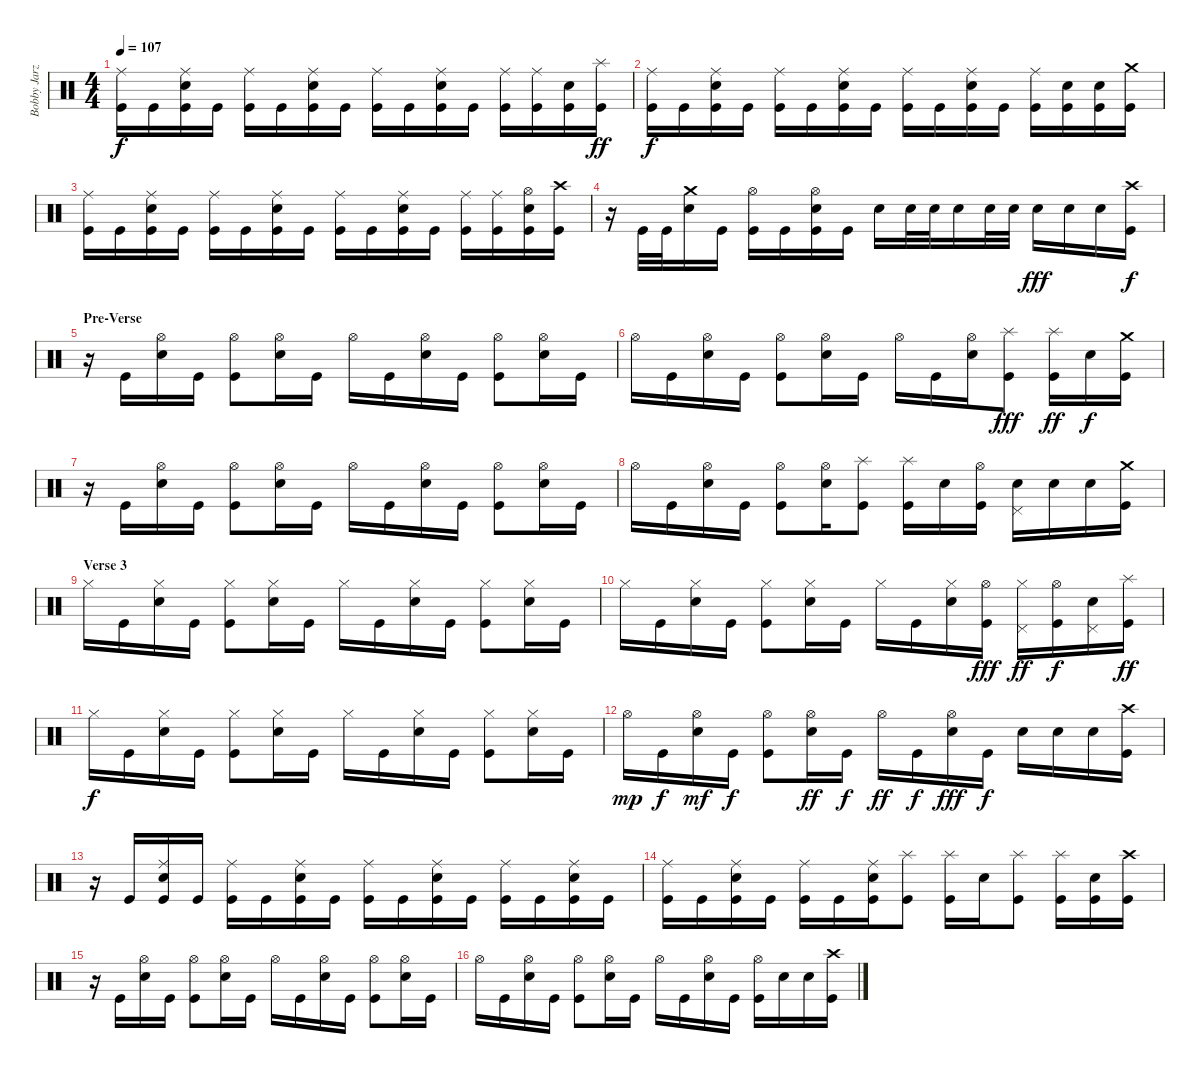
\track ("Bobby Jarzombek" "Bobby Jarz") {instrument percussion}
\staff {score}
\articulation defaults
\ts (4 4)
\tempo 107
\clef neutral
\ks c
("Kick (hit)" "Ride (middle)").16{dy f} "Kick (hit)".16 ("Kick (hit)" "Ride (middle)" "Electric Snare (hit)").16 "Kick (hit)".16 ("Kick (hit)" "Ride (middle)").16 "Kick (hit)".16 ("Kick (hit)" "Ride (middle)" "Electric Snare (hit)").16 "Kick (hit)".16 ("Kick (hit)" "Ride (middle)").16 "Kick (hit)".16 ("Kick (hit)" "Ride (middle)" "Electric Snare (hit)").16 "Kick (hit)".16 ("Kick (hit)" "Ride (middle)").16 ("Kick (hit)" "Ride (middle)").16 ("Kick (hit)" "Electric Snare (hit)").16 ("Kick (hit)" "Splash (hit)").16{dy ff} |
("Kick (hit)" "Ride (middle)").16{dy f} "Kick (hit)".16 ("Kick (hit)" "Ride (middle)" "Electric Snare (hit)").16 "Kick (hit)".16 ("Kick (hit)" "Ride (middle)").16 "Kick (hit)".16 ("Kick (hit)" "Ride (middle)" "Electric Snare (hit)").16 "Kick (hit)".16 ("Kick (hit)" "Ride (middle)").16 "Kick (hit)".16 ("Kick (hit)" "Ride (middle)" "Electric Snare (hit)").16 "Kick (hit)".16 ("Kick (hit)" "Ride (middle)").16 ("Kick (hit)" "Electric Snare (hit)").16 ("Kick (hit)" "Electric Snare (hit)").16 ("Kick (hit)" "Crash medium (hit)").16 |
("Kick (hit)" "Ride (middle)").16 "Kick (hit)".16 ("Kick (hit)" "Ride (middle)" "Electric Snare (hit)").16 "Kick (hit)".16 ("Kick (hit)" "Ride (middle)").16 "Kick (hit)".16 ("Kick (hit)" "Ride (middle)" "Electric Snare (hit)").16 "Kick (hit)".16 ("Kick (hit)" "Ride (middle)").16 "Kick (hit)".16 ("Kick (hit)" "Ride (middle)" "Electric Snare (hit)").16 "Kick (hit)".16 ("Kick (hit)" "Ride (middle)").16 ("Kick (hit)" "Ride (middle)").16 ("Kick (hit)" "Hi-Hat (open)" "Electric Snare (hit)").16 ("Kick (hit)" "Crash high (hit)").16 |
r.16 "Kick (hit)".32 "Kick (hit)".32 ("Crash medium (hit)" "Electric Snare (hit)").16 "Kick (hit)".16 ("Kick (hit)" "Hi-Hat (open)").16 "Kick (hit)".16 ("Kick (hit)" "Electric Snare (hit)" "Hi-Hat (open)").16 "Kick (hit)".16 "Electric Snare (hit)".16 "Electric Snare (hit)".32 "Electric Snare (hit)".32 "Electric Snare (hit)".16 "Electric Snare (hit)".32 "Electric Snare (hit)".32 "Electric Snare (hit)".16{dy fff} "Electric Snare (hit)".16 "Electric Snare (hit)".16 ("Crash high (hit)" "Kick (hit)").16{dy f} |
\section ("" "Pre-Verse")
r.16 "Kick (hit)".16 ("Hi-Hat (open)" "Electric Snare (hit)").16 "Kick (hit)".16 ("Hi-Hat (open)" "Kick (hit)").8 ("Hi-Hat (open)" "Electric Snare (hit)").16 "Kick (hit)".16 "Hi-Hat (open)".16 "Kick (hit)".16 ("Hi-Hat (open)" "Electric Snare (hit)").16 "Kick (hit)".16 ("Hi-Hat (open)" "Kick (hit)").8 ("Hi-Hat (open)" "Electric Snare (hit)").16 "Kick (hit)".16 |
"Hi-Hat (open)".16 "Kick (hit)".16 ("Hi-Hat (open)" "Electric Snare (hit)").16 "Kick (hit)".16 ("Hi-Hat (open)" "Kick (hit)").8 ("Hi-Hat (open)" "Electric Snare (hit)").16 "Kick (hit)".16 "Hi-Hat (open)".16 "Kick (hit)".16 ("Hi-Hat (open)" "Electric Snare (hit)").16 ("Splash (hit)" "Kick (hit)").8{dy fff} ("Splash (hit)" "Kick (hit)").16{dy ff} "Electric Snare (hit)".16{dy f} ("Crash medium (hit)" "Kick (hit)").16 |
r.16 "Kick (hit)".16 ("Hi-Hat (open)" "Electric Snare (hit)").16 "Kick (hit)".16 ("Hi-Hat (open)" "Kick (hit)").8 ("Hi-Hat (open)" "Electric Snare (hit)").16 "Kick (hit)".16 "Hi-Hat (open)".16 "Kick (hit)".16 ("Hi-Hat (open)" "Electric Snare (hit)").16 "Kick (hit)".16 ("Hi-Hat (open)" "Kick (hit)").8 ("Hi-Hat (open)" "Electric Snare (hit)").16 "Kick (hit)".16 |
"Hi-Hat (open)".16 "Kick (hit)".16 ("Hi-Hat (open)" "Electric Snare (hit)").16 "Kick (hit)".16 ("Hi-Hat (open)" "Kick (hit)").8 ("Hi-Hat (open)" "Electric Snare (hit)").16 ("Splash (hit)" "Kick (hit)").8 ("Splash (hit)" "Kick (hit)").16 "Electric Snare (hit)".16 ("Hi-Hat (open)" "Kick (hit)").16 ("Electric Snare (hit)" "Pedal Hi-Hat (hit)").16 "Electric Snare (hit)".16 "Electric Snare (hit)".16 ("Crash medium (hit)" "Kick (hit)").16 |
\section ("" "Verse 3")
"Hi-Hat (closed)".16 "Kick (hit)".16 ("Hi-Hat (closed)" "Electric Snare (hit)").16 "Kick (hit)".16 ("Hi-Hat (closed)" "Kick (hit)").8 ("Hi-Hat (closed)" "Electric Snare (hit)").16 "Kick (hit)".16 "Hi-Hat (closed)".16 "Kick (hit)".16 ("Hi-Hat (closed)" "Electric Snare (hit)").16 "Kick (hit)".16 ("Hi-Hat (closed)" "Kick (hit)").8 ("Hi-Hat (closed)" "Electric Snare (hit)").16 "Kick (hit)".16 |
"Hi-Hat (closed)".16 "Kick (hit)".16 ("Hi-Hat (closed)" "Electric Snare (hit)").16 "Kick (hit)".16 ("Hi-Hat (closed)" "Kick (hit)").8 ("Hi-Hat (closed)" "Electric Snare (hit)").16 "Kick (hit)".16 "Hi-Hat (closed)".16 "Kick (hit)".16 ("Hi-Hat (closed)" "Electric Snare (hit)").16 ("Hi-Hat (open)" "Kick (hit)").16{dy fff} ("Hi-Hat (closed)" "Pedal Hi-Hat (hit)").16{dy ff} ("Hi-Hat (open)" "Kick (hit)").16{dy f} ("Pedal Hi-Hat (hit)" "Electric Snare (hit)").16 ("Splash (hit)" "Kick (hit)").16{dy ff} |
"Hi-Hat (closed)".16{dy f} "Kick (hit)".16 ("Hi-Hat (closed)" "Electric Snare (hit)").16 "Kick (hit)".16 ("Hi-Hat (closed)" "Kick (hit)").8 ("Hi-Hat (closed)" "Electric Snare (hit)").16 "Kick (hit)".16 "Hi-Hat (closed)".16 "Kick (hit)".16 ("Hi-Hat (closed)" "Electric Snare (hit)").16 "Kick (hit)".16 ("Hi-Hat (closed)" "Kick (hit)").8 ("Hi-Hat (closed)" "Electric Snare (hit)").16 "Kick (hit)".16 |
"Hi-Hat (open)".16{dy mp} "Kick (hit)".16{dy f} ("Hi-Hat (open)" "Electric Snare (hit)").16{dy mf} "Kick (hit)".16{dy f} ("Hi-Hat (open)" "Kick (hit)").8 ("Hi-Hat (open)" "Electric Snare (hit)").16{dy ff} "Kick (hit)".16{dy f} "Hi-Hat (open)".16{dy ff} "Kick (hit)".16{dy f} ("Hi-Hat (open)" "Electric Snare (hit)").16{dy fff} "Kick (hit)".16{dy f} "Electric Snare (hit)".16 "Electric Snare (hit)".16 "Electric Snare (hit)".16 ("Crash high (hit)" "Kick (hit)").16 |
r.16 "Kick (hit)".16 ("Ride (middle)" "Electric Snare (hit)" "Kick (hit)").16 "Kick (hit)".16 ("Ride (middle)" "Kick (hit)").16 "Kick (hit)".16 ("Ride (middle)" "Electric Snare (hit)" "Kick (hit)").16 "Kick (hit)".16 ("Ride (middle)" "Kick (hit)").16 "Kick (hit)".16 ("Ride (middle)" "Electric Snare (hit)" "Kick (hit)").16 "Kick (hit)".16 ("Ride (middle)" "Kick (hit)").16 "Kick (hit)".16 ("Ride (middle)" "Electric Snare (hit)" "Kick (hit)").16 "Kick (hit)".16 |
("Ride (middle)" "Kick (hit)").16 "Kick (hit)".16 ("Ride (middle)" "Electric Snare (hit)" "Kick (hit)").16 "Kick (hit)".16 ("Ride (middle)" "Kick (hit)").16 "Kick (hit)".16 ("Ride (middle)" "Electric Snare (hit)" "Kick (hit)").16 ("Splash (hit)" "Kick (hit)").8 ("Splash (hit)" "Kick (hit)").16 "Electric Snare (hit)".16 ("Splash (hit)" "Kick (hit)").8 ("Splash (hit)" "Kick (hit)").16 ("Electric Snare (hit)" "Kick (hit)").16 ("Crash high (hit)" "Kick (hit)").16 |
r.16 "Kick (hit)".16 ("Hi-Hat (open)" "Electric Snare (hit)").16 "Kick (hit)".16 ("Hi-Hat (open)" "Kick (hit)").8 ("Hi-Hat (open)" "Electric Snare (hit)").16 "Kick (hit)".16 "Hi-Hat (open)".16 "Kick (hit)".16 ("Hi-Hat (open)" "Electric Snare (hit)").16 "Kick (hit)".16 ("Hi-Hat (open)" "Kick (hit)").8 ("Hi-Hat (open)" "Electric Snare (hit)").16 "Kick (hit)".16 |
"Hi-Hat (open)".16 "Kick (hit)".16 ("Hi-Hat (open)" "Electric Snare (hit)").16 "Kick (hit)".16 ("Hi-Hat (open)" "Kick (hit)").8 ("Hi-Hat (open)" "Electric Snare (hit)").16 "Kick (hit)".16 "Hi-Hat (open)".16 "Kick (hit)".16 ("Hi-Hat (open)" "Electric Snare (hit)").16 "Kick (hit)".16 ("Hi-Hat (open)" "Kick (hit)").16 "Electric Snare (hit)".16 "Electric Snare (hit)".16 ("Crash high (hit)" "Kick (hit)").16
